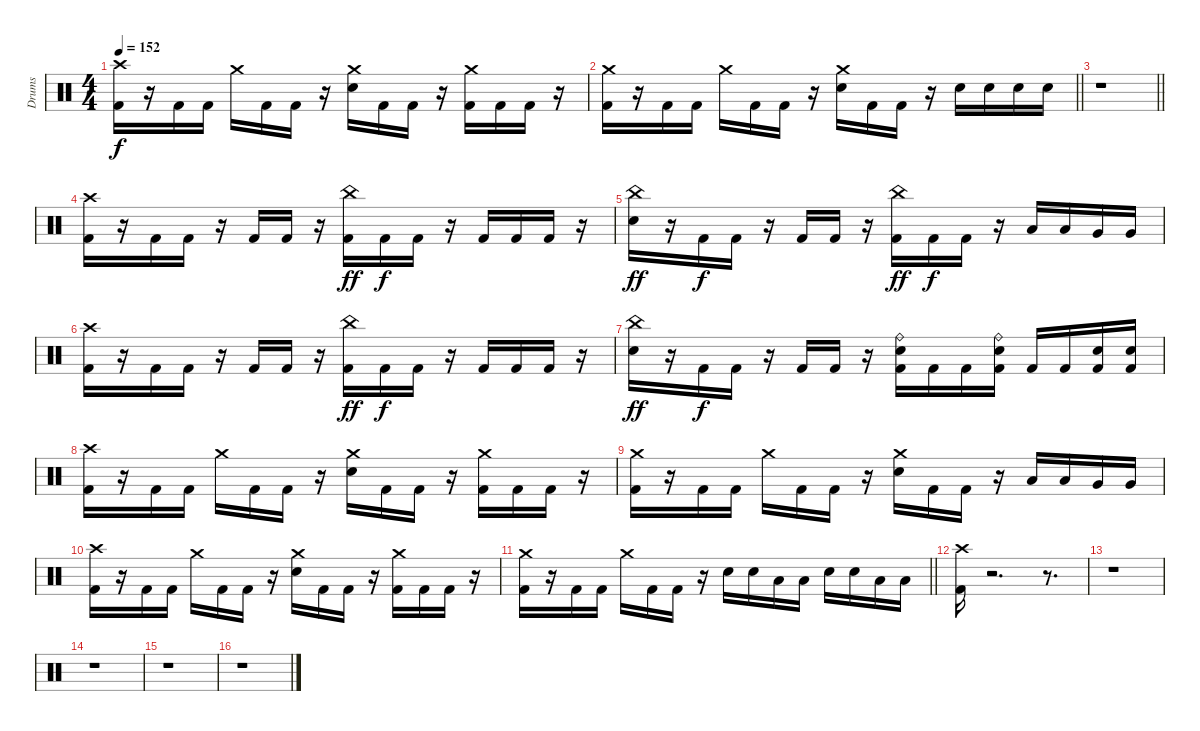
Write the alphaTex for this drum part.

\track ("Drums" "Drums") {instrument percussion}
\staff {score}
\articulation defaults
\ts (4 4)
\tempo 152
\clef neutral
\ks c
("Kick (hit) 2" "Crash high (hit)").16{dy f} r.16 "Kick (hit) 2".16 "Kick (hit) 2".16 "Crash medium (hit)".16 "Kick (hit) 2".16 "Kick (hit) 2".16 r.16 ("Snare (hit) 2" "Crash medium (hit)").16 "Kick (hit) 2".16 "Kick (hit) 2".16 r.16 ("Kick (hit) 2" "Crash medium (hit)").16 "Kick (hit) 2".16 "Kick (hit) 2".16 r.16 |
\barLineRight lightlight
("Kick (hit) 2" "Crash medium (hit)").16 r.16 "Kick (hit) 2".16 "Kick (hit) 2".16 "Crash medium (hit)".16 "Kick (hit) 2".16 "Kick (hit) 2".16 r.16 ("Snare (hit) 2" "Crash medium (hit)").16 "Kick (hit) 2".16 "Kick (hit) 2".16 r.16 "Snare (hit) 2".16 "Snare (hit) 2".16 "Snare (hit) 2".16 "Snare (hit) 2".16 |
\section ("" " ")
\barLineRight lightlight
r.1 |
\section ("" " ")
("Kick (hit) 2" "Crash high (hit)").16 r.16 "Kick (hit) 2".16 "Kick (hit) 2".16 r.16 "Kick (hit) 2".16 "Kick (hit) 2".16 r.16 ("Kick (hit) 2" "China (hit)").16{dy ff} "Kick (hit) 2".16{dy f} "Kick (hit) 2".16 r.16 "Kick (hit) 2".16 "Kick (hit) 2".16 "Kick (hit) 2".16 r.16 |
("Snare (hit) 2" "China (hit)").16{dy ff} r.16 "Kick (hit) 2".16{dy f} "Kick (hit) 2".16 r.16 "Kick (hit) 2".16 "Kick (hit) 2".16 r.16 ("Kick (hit) 2" "China (hit)").16{dy ff} "Kick (hit) 2".16{dy f} "Kick (hit) 2".16 r.16 "Low Tom (hit)".16 "Low Tom (hit)".16 "Very Low Tom (hit)".16 "Very Low Tom (hit)".16 |
("Kick (hit) 2" "Crash high (hit)").16 r.16 "Kick (hit) 2".16 "Kick (hit) 2".16 r.16 "Kick (hit) 2".16 "Kick (hit) 2".16 r.16 ("Kick (hit) 2" "China (hit)").16{dy ff} "Kick (hit) 2".16{dy f} "Kick (hit) 2".16 r.16 "Kick (hit) 2".16 "Kick (hit) 2".16 "Kick (hit) 2".16 r.16 |
("Snare (hit) 2" "China (hit)").16{dy ff} r.16 "Kick (hit) 2".16{dy f} "Kick (hit) 2".16 r.16 "Kick (hit) 2".16 "Kick (hit) 2".16 r.16 ("Kick (hit) 2" "Snare (hit) 2" "Ride (bell)").16 "Kick (hit) 2".16 "Kick (hit) 2".16 ("Kick (hit) 2" "Snare (hit) 2" "Ride (bell)").16 "Kick (hit) 2".16 "Kick (hit) 2".16 ("Kick (hit) 2" "Snare (hit) 2").16 ("Kick (hit) 2" "Snare (hit) 2").16 |
("Kick (hit) 2" "Crash high (hit)").16 r.16 "Kick (hit) 2".16 "Kick (hit) 2".16 "Crash medium (hit)".16 "Kick (hit) 2".16 "Kick (hit) 2".16 r.16 ("Snare (hit) 2" "Crash medium (hit)").16 "Kick (hit) 2".16 "Kick (hit) 2".16 r.16 ("Kick (hit) 2" "Crash medium (hit)").16 "Kick (hit) 2".16 "Kick (hit) 2".16 r.16 |
("Kick (hit) 2" "Crash medium (hit)").16 r.16 "Kick (hit) 2".16 "Kick (hit) 2".16 "Crash medium (hit)".16 "Kick (hit) 2".16 "Kick (hit) 2".16 r.16 ("Snare (hit) 2" "Crash medium (hit)").16 "Kick (hit) 2".16 "Kick (hit) 2".16 r.16 "Low Tom (hit)".16 "Low Tom (hit)".16 "Very Low Tom (hit)".16 "Very Low Tom (hit)".16 |
("Kick (hit) 2" "Crash high (hit)").16 r.16 "Kick (hit) 2".16 "Kick (hit) 2".16 "Crash medium (hit)".16 "Kick (hit) 2".16 "Kick (hit) 2".16 r.16 ("Snare (hit) 2" "Crash medium (hit)").16 "Kick (hit) 2".16 "Kick (hit) 2".16 r.16 ("Kick (hit) 2" "Crash medium (hit)").16 "Kick (hit) 2".16 "Kick (hit) 2".16 r.16 |
\barLineRight lightlight
("Kick (hit) 2" "Crash medium (hit)").16 r.16 "Kick (hit) 2".16 "Kick (hit) 2".16 "Crash medium (hit)".16 "Kick (hit) 2".16 "Kick (hit) 2".16 r.16 "Snare (hit) 2".16 "Snare (hit) 2".16 "Low Tom (hit)".16 "Low Tom (hit)".16 "Snare (hit) 2".16 "Snare (hit) 2".16 "Low Tom (hit)".16 "Low Tom (hit)".16 |
\section ("" " ")
("Kick (hit) 2" "Crash high (hit)").16 r.2{d} r.8{d} |
r.1 |
r.1 |
r.1 |
r.1
